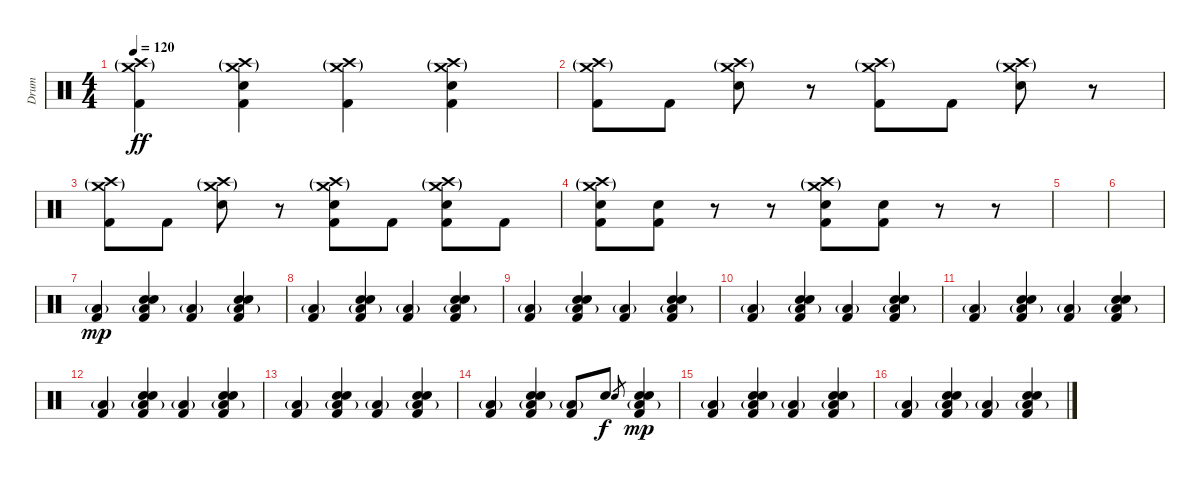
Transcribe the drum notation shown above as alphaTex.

\track ("Drum" "Drum") {instrument percussion}
\staff {score}
\articulation defaults
\ts (4 4)
\tempo 120
\clef neutral
\ks c
("Crash medium (hit)"{g} "Crash high (hit)"{g} "Kick (hit) 2").4{dy ff} ("Crash medium (hit)"{g} "Crash high (hit)"{g} "Snare (hit) 2" "Kick (hit) 2").4 ("Crash medium (hit)"{g} "Crash high (hit)"{g} "Kick (hit) 2").4 ("Crash medium (hit)"{g} "Crash high (hit)"{g} "Snare (hit) 2" "Kick (hit) 2").4 |
("Crash medium (hit)"{g} "Crash high (hit)"{g} "Kick (hit) 2").8 "Kick (hit) 2".8 ("Crash medium (hit)"{g} "Crash high (hit)"{g} "Snare (hit) 2").8 r.8 ("Crash medium (hit)"{g} "Crash high (hit)"{g} "Kick (hit) 2").8 "Kick (hit) 2".8 ("Crash medium (hit)"{g} "Crash high (hit)"{g} "Snare (hit) 2").8 r.8 |
("Crash medium (hit)"{g} "Crash high (hit)"{g} "Kick (hit) 2").8 "Kick (hit) 2".8 ("Crash medium (hit)"{g} "Crash high (hit)"{g} "Snare (hit) 2").8 r.8 ("Crash medium (hit)"{g} "Crash high (hit)"{g} "Snare (hit) 2" "Kick (hit) 2").8 "Kick (hit) 2".8 ("Crash medium (hit)"{g} "Crash high (hit)"{g} "Snare (hit) 2" "Kick (hit) 2").8 "Kick (hit) 2".8 |
("Crash medium (hit)"{g} "Crash high (hit)"{g} "Snare (hit) 2" "Kick (hit) 2").8 ("Snare (hit) 2" "Kick (hit) 2").8 r.8 r.8 ("Crash medium (hit)"{g} "Crash high (hit)"{g} "Snare (hit) 2" "Kick (hit) 2").8 ("Snare (hit) 2" "Kick (hit) 2").8 r.8 r.8 |
|
|
("Low Tom (hit)"{g} "Kick (hit) 2").4{dy mp} ("Hand Clap (hit)" "Snare (hit) 2" "Low Tom (hit)"{g} "Kick (hit) 2").4 ("Low Tom (hit)"{g} "Kick (hit) 2").4 ("Hand Clap (hit)" "Snare (hit) 2" "Low Tom (hit)"{g} "Kick (hit) 2").4 |
("Low Tom (hit)"{g} "Kick (hit) 2").4 ("Hand Clap (hit)" "Snare (hit) 2" "Low Tom (hit)"{g} "Kick (hit) 2").4 ("Low Tom (hit)"{g} "Kick (hit) 2").4 ("Hand Clap (hit)" "Snare (hit) 2" "Low Tom (hit)"{g} "Kick (hit) 2").4 |
("Low Tom (hit)"{g} "Kick (hit) 2").4 ("Hand Clap (hit)" "Snare (hit) 2" "Low Tom (hit)"{g} "Kick (hit) 2").4 ("Low Tom (hit)"{g} "Kick (hit) 2").4 ("Hand Clap (hit)" "Snare (hit) 2" "Low Tom (hit)"{g} "Kick (hit) 2").4 |
("Low Tom (hit)"{g} "Kick (hit) 2").4 ("Hand Clap (hit)" "Snare (hit) 2" "Low Tom (hit)"{g} "Kick (hit) 2").4 ("Low Tom (hit)"{g} "Kick (hit) 2").4 ("Hand Clap (hit)" "Snare (hit) 2" "Low Tom (hit)"{g} "Kick (hit) 2").4 |
("Low Tom (hit)"{g} "Kick (hit) 2").4 ("Hand Clap (hit)" "Snare (hit) 2" "Low Tom (hit)"{g} "Kick (hit) 2").4 ("Low Tom (hit)"{g} "Kick (hit) 2").4 ("Hand Clap (hit)" "Snare (hit) 2" "Low Tom (hit)"{g} "Kick (hit) 2").4 |
("Low Tom (hit)"{g} "Kick (hit) 2").4 ("Hand Clap (hit)" "Snare (hit) 2" "Low Tom (hit)"{g} "Kick (hit) 2").4 ("Low Tom (hit)"{g} "Kick (hit) 2").4 ("Hand Clap (hit)" "Snare (hit) 2" "Low Tom (hit)"{g} "Kick (hit) 2").4 |
("Low Tom (hit)"{g} "Kick (hit) 2").4 ("Hand Clap (hit)" "Snare (hit) 2" "Low Tom (hit)"{g} "Kick (hit) 2").4 ("Low Tom (hit)"{g} "Kick (hit) 2").4 ("Hand Clap (hit)" "Snare (hit) 2" "Low Tom (hit)"{g} "Kick (hit) 2").4 |
("Low Tom (hit)"{g} "Kick (hit) 2").4 ("Hand Clap (hit)" "Snare (hit) 2" "Low Tom (hit)"{g} "Kick (hit) 2").4 ("Low Tom (hit)"{g} "Kick (hit) 2").8 "Snare (hit) 2".8{dy f} "Snare (hit) 2".8{gr} ("Hand Clap (hit)" "Snare (hit) 2" "Low Tom (hit)"{g} "Kick (hit) 2").4{dy mp} |
("Low Tom (hit)"{g} "Kick (hit) 2").4 ("Hand Clap (hit)" "Snare (hit) 2" "Low Tom (hit)"{g} "Kick (hit) 2").4 ("Low Tom (hit)"{g} "Kick (hit) 2").4 ("Hand Clap (hit)" "Snare (hit) 2" "Low Tom (hit)"{g} "Kick (hit) 2").4 |
("Low Tom (hit)"{g} "Kick (hit) 2").4 ("Hand Clap (hit)" "Snare (hit) 2" "Low Tom (hit)"{g} "Kick (hit) 2").4 ("Low Tom (hit)"{g} "Kick (hit) 2").4 ("Hand Clap (hit)" "Snare (hit) 2" "Low Tom (hit)"{g} "Kick (hit) 2").4
